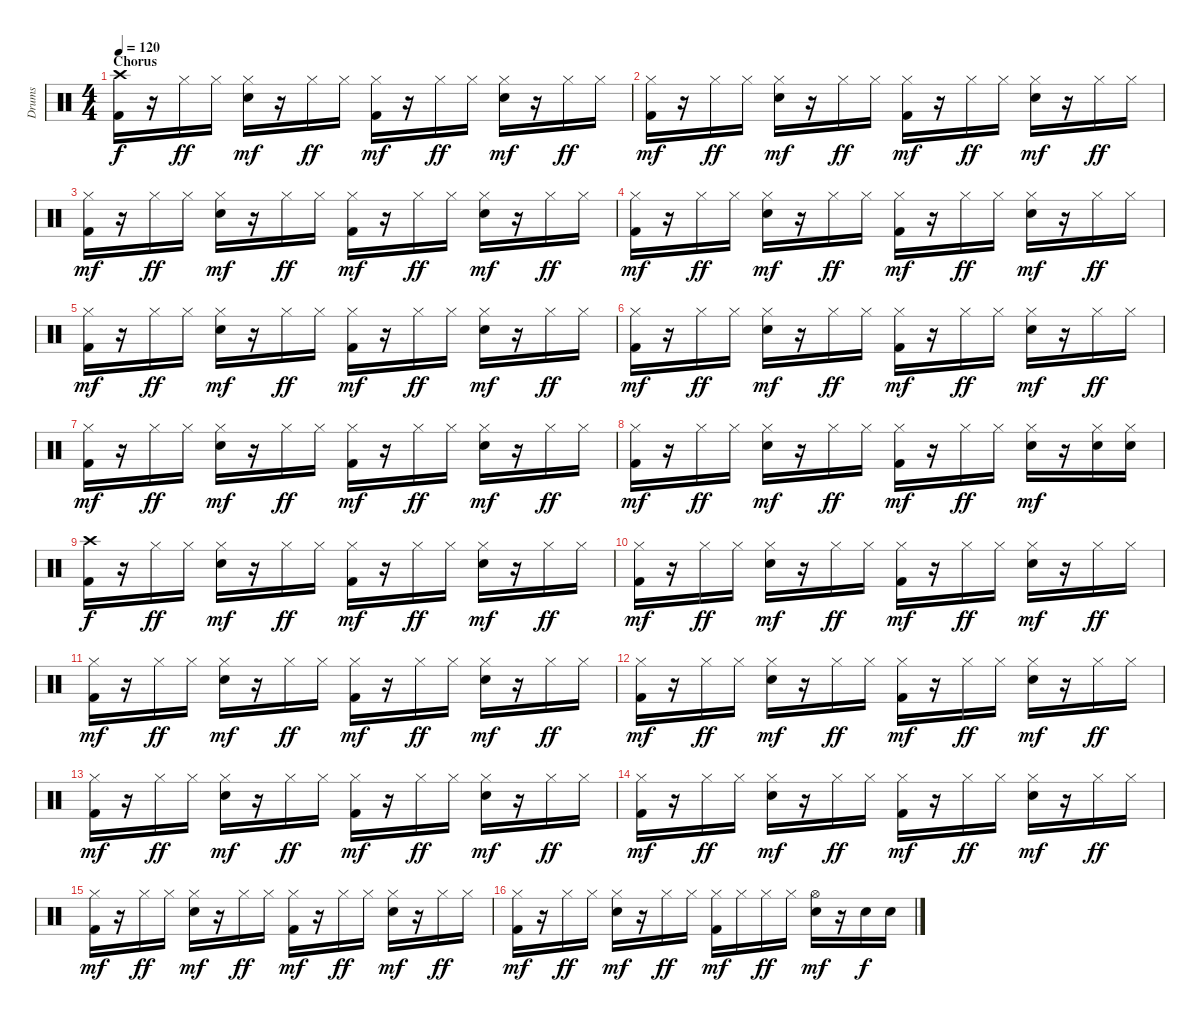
\track ("Drums" "Drums") {instrument percussion}
\staff {score}
\articulation defaults
\ts (4 4)
\section ("" "Chorus")
\tempo 120
\clef neutral
\ks c
("Crash high (hit)" "Kick (hit) 2").16{dy f} r.16 "Hi-Hat (closed)".16{dy ff} "Hi-Hat (closed)".16 ("Hi-Hat (closed)" "Electric Snare (hit)").16{dy mf} r.16 "Hi-Hat (closed)".16{dy ff} "Hi-Hat (closed)".16 ("Hi-Hat (closed)" "Kick (hit) 2").16{dy mf} r.16 "Hi-Hat (closed)".16{dy ff} "Hi-Hat (closed)".16 ("Hi-Hat (closed)" "Electric Snare (hit)").16{dy mf} r.16 "Hi-Hat (closed)".16{dy ff} "Hi-Hat (closed)".16 |
("Hi-Hat (closed)" "Kick (hit) 2").16{dy mf} r.16 "Hi-Hat (closed)".16{dy ff} "Hi-Hat (closed)".16 ("Hi-Hat (closed)" "Electric Snare (hit)").16{dy mf} r.16 "Hi-Hat (closed)".16{dy ff} "Hi-Hat (closed)".16 ("Hi-Hat (closed)" "Kick (hit) 2").16{dy mf} r.16 "Hi-Hat (closed)".16{dy ff} "Hi-Hat (closed)".16 ("Hi-Hat (closed)" "Electric Snare (hit)").16{dy mf} r.16 "Hi-Hat (closed)".16{dy ff} "Hi-Hat (closed)".16 |
("Hi-Hat (closed)" "Kick (hit) 2").16{dy mf} r.16 "Hi-Hat (closed)".16{dy ff} "Hi-Hat (closed)".16 ("Hi-Hat (closed)" "Electric Snare (hit)").16{dy mf} r.16 "Hi-Hat (closed)".16{dy ff} "Hi-Hat (closed)".16 ("Hi-Hat (closed)" "Kick (hit) 2").16{dy mf} r.16 "Hi-Hat (closed)".16{dy ff} "Hi-Hat (closed)".16 ("Hi-Hat (closed)" "Electric Snare (hit)").16{dy mf} r.16 "Hi-Hat (closed)".16{dy ff} "Hi-Hat (closed)".16 |
("Hi-Hat (closed)" "Kick (hit) 2").16{dy mf} r.16 "Hi-Hat (closed)".16{dy ff} "Hi-Hat (closed)".16 ("Hi-Hat (closed)" "Electric Snare (hit)").16{dy mf} r.16 "Hi-Hat (closed)".16{dy ff} "Hi-Hat (closed)".16 ("Hi-Hat (closed)" "Kick (hit) 2").16{dy mf} r.16 "Hi-Hat (closed)".16{dy ff} "Hi-Hat (closed)".16 ("Hi-Hat (closed)" "Electric Snare (hit)").16{dy mf} r.16 "Hi-Hat (closed)".16{dy ff} "Hi-Hat (closed)".16 |
("Hi-Hat (closed)" "Kick (hit) 2").16{dy mf} r.16 "Hi-Hat (closed)".16{dy ff} "Hi-Hat (closed)".16 ("Hi-Hat (closed)" "Electric Snare (hit)").16{dy mf} r.16 "Hi-Hat (closed)".16{dy ff} "Hi-Hat (closed)".16 ("Hi-Hat (closed)" "Kick (hit) 2").16{dy mf} r.16 "Hi-Hat (closed)".16{dy ff} "Hi-Hat (closed)".16 ("Hi-Hat (closed)" "Electric Snare (hit)").16{dy mf} r.16 "Hi-Hat (closed)".16{dy ff} "Hi-Hat (closed)".16 |
("Hi-Hat (closed)" "Kick (hit) 2").16{dy mf} r.16 "Hi-Hat (closed)".16{dy ff} "Hi-Hat (closed)".16 ("Hi-Hat (closed)" "Electric Snare (hit)").16{dy mf} r.16 "Hi-Hat (closed)".16{dy ff} "Hi-Hat (closed)".16 ("Hi-Hat (closed)" "Kick (hit) 2").16{dy mf} r.16 "Hi-Hat (closed)".16{dy ff} "Hi-Hat (closed)".16 ("Hi-Hat (closed)" "Electric Snare (hit)").16{dy mf} r.16 "Hi-Hat (closed)".16{dy ff} "Hi-Hat (closed)".16 |
("Hi-Hat (closed)" "Kick (hit) 2").16{dy mf} r.16 "Hi-Hat (closed)".16{dy ff} "Hi-Hat (closed)".16 ("Hi-Hat (closed)" "Electric Snare (hit)").16{dy mf} r.16 "Hi-Hat (closed)".16{dy ff} "Hi-Hat (closed)".16 ("Hi-Hat (closed)" "Kick (hit) 2").16{dy mf} r.16 "Hi-Hat (closed)".16{dy ff} "Hi-Hat (closed)".16 ("Hi-Hat (closed)" "Electric Snare (hit)").16{dy mf} r.16 "Hi-Hat (closed)".16{dy ff} "Hi-Hat (closed)".16 |
("Hi-Hat (closed)" "Kick (hit) 2").16{dy mf} r.16 "Hi-Hat (closed)".16{dy ff} "Hi-Hat (closed)".16 ("Hi-Hat (closed)" "Electric Snare (hit)").16{dy mf} r.16 "Hi-Hat (closed)".16{dy ff} "Hi-Hat (closed)".16 ("Hi-Hat (closed)" "Kick (hit) 2").16{dy mf} r.16 "Hi-Hat (closed)".16{dy ff} "Hi-Hat (closed)".16 ("Hi-Hat (closed)" "Electric Snare (hit)").16{dy mf} r.16 ("Hi-Hat (closed)" "Electric Snare (hit)").16 ("Hi-Hat (closed)" "Electric Snare (hit)").16 |
("Crash high (hit)" "Kick (hit) 2").16{dy f} r.16 "Hi-Hat (closed)".16{dy ff} "Hi-Hat (closed)".16 ("Hi-Hat (closed)" "Electric Snare (hit)").16{dy mf} r.16 "Hi-Hat (closed)".16{dy ff} "Hi-Hat (closed)".16 ("Hi-Hat (closed)" "Kick (hit) 2").16{dy mf} r.16 "Hi-Hat (closed)".16{dy ff} "Hi-Hat (closed)".16 ("Hi-Hat (closed)" "Electric Snare (hit)").16{dy mf} r.16 "Hi-Hat (closed)".16{dy ff} "Hi-Hat (closed)".16 |
("Hi-Hat (closed)" "Kick (hit) 2").16{dy mf} r.16 "Hi-Hat (closed)".16{dy ff} "Hi-Hat (closed)".16 ("Hi-Hat (closed)" "Electric Snare (hit)").16{dy mf} r.16 "Hi-Hat (closed)".16{dy ff} "Hi-Hat (closed)".16 ("Hi-Hat (closed)" "Kick (hit) 2").16{dy mf} r.16 "Hi-Hat (closed)".16{dy ff} "Hi-Hat (closed)".16 ("Hi-Hat (closed)" "Electric Snare (hit)").16{dy mf} r.16 "Hi-Hat (closed)".16{dy ff} "Hi-Hat (closed)".16 |
("Hi-Hat (closed)" "Kick (hit) 2").16{dy mf} r.16 "Hi-Hat (closed)".16{dy ff} "Hi-Hat (closed)".16 ("Hi-Hat (closed)" "Electric Snare (hit)").16{dy mf} r.16 "Hi-Hat (closed)".16{dy ff} "Hi-Hat (closed)".16 ("Hi-Hat (closed)" "Kick (hit) 2").16{dy mf} r.16 "Hi-Hat (closed)".16{dy ff} "Hi-Hat (closed)".16 ("Hi-Hat (closed)" "Electric Snare (hit)").16{dy mf} r.16 "Hi-Hat (closed)".16{dy ff} "Hi-Hat (closed)".16 |
("Hi-Hat (closed)" "Kick (hit) 2").16{dy mf} r.16 "Hi-Hat (closed)".16{dy ff} "Hi-Hat (closed)".16 ("Hi-Hat (closed)" "Electric Snare (hit)").16{dy mf} r.16 "Hi-Hat (closed)".16{dy ff} "Hi-Hat (closed)".16 ("Hi-Hat (closed)" "Kick (hit) 2").16{dy mf} r.16 "Hi-Hat (closed)".16{dy ff} "Hi-Hat (closed)".16 ("Hi-Hat (closed)" "Electric Snare (hit)").16{dy mf} r.16 "Hi-Hat (closed)".16{dy ff} "Hi-Hat (closed)".16 |
("Hi-Hat (closed)" "Kick (hit) 2").16{dy mf} r.16 "Hi-Hat (closed)".16{dy ff} "Hi-Hat (closed)".16 ("Hi-Hat (closed)" "Electric Snare (hit)").16{dy mf} r.16 "Hi-Hat (closed)".16{dy ff} "Hi-Hat (closed)".16 ("Hi-Hat (closed)" "Kick (hit) 2").16{dy mf} r.16 "Hi-Hat (closed)".16{dy ff} "Hi-Hat (closed)".16 ("Hi-Hat (closed)" "Electric Snare (hit)").16{dy mf} r.16 "Hi-Hat (closed)".16{dy ff} "Hi-Hat (closed)".16 |
("Hi-Hat (closed)" "Kick (hit) 2").16{dy mf} r.16 "Hi-Hat (closed)".16{dy ff} "Hi-Hat (closed)".16 ("Hi-Hat (closed)" "Electric Snare (hit)").16{dy mf} r.16 "Hi-Hat (closed)".16{dy ff} "Hi-Hat (closed)".16 ("Hi-Hat (closed)" "Kick (hit) 2").16{dy mf} r.16 "Hi-Hat (closed)".16{dy ff} "Hi-Hat (closed)".16 ("Hi-Hat (closed)" "Electric Snare (hit)").16{dy mf} r.16 "Hi-Hat (closed)".16{dy ff} "Hi-Hat (closed)".16 |
("Hi-Hat (closed)" "Kick (hit) 2").16{dy mf} r.16 "Hi-Hat (closed)".16{dy ff} "Hi-Hat (closed)".16 ("Hi-Hat (closed)" "Electric Snare (hit)").16{dy mf} r.16 "Hi-Hat (closed)".16{dy ff} "Hi-Hat (closed)".16 ("Hi-Hat (closed)" "Kick (hit) 2").16{dy mf} r.16 "Hi-Hat (closed)".16{dy ff} "Hi-Hat (closed)".16 ("Hi-Hat (closed)" "Electric Snare (hit)").16{dy mf} r.16 "Hi-Hat (closed)".16{dy ff} "Hi-Hat (closed)".16 |
("Hi-Hat (closed)" "Kick (hit) 2").16{dy mf} r.16 "Hi-Hat (closed)".16{dy ff} "Hi-Hat (closed)".16 ("Hi-Hat (closed)" "Electric Snare (hit)").16{dy mf} r.16 "Hi-Hat (closed)".16{dy ff} "Hi-Hat (closed)".16 ("Hi-Hat (closed)" "Kick (hit) 2").16{dy mf} "Hi-Hat (closed)".16 "Hi-Hat (closed)".16{dy ff} "Hi-Hat (closed)".16 ("Hi-Hat (open)" "Electric Snare (hit)").16{dy mf} r.16 "Electric Snare (hit)".16{dy f} "Electric Snare (hit)".16
